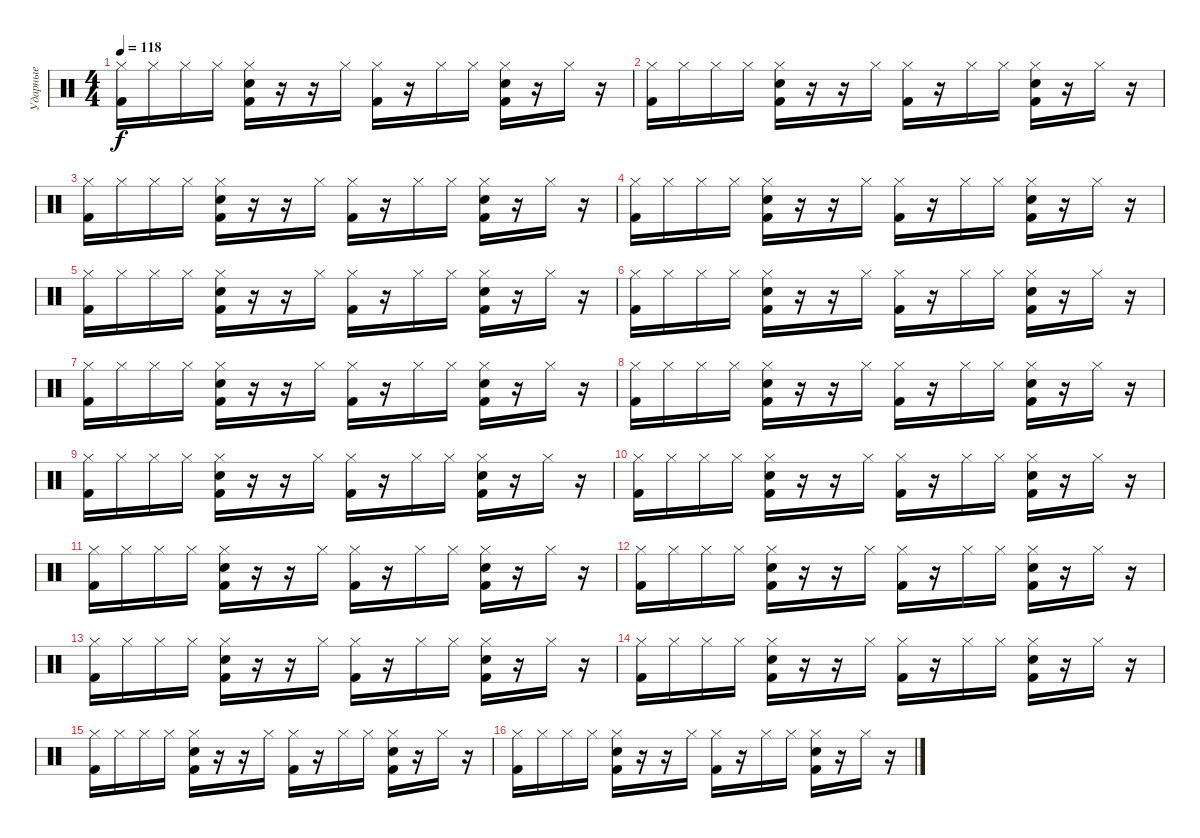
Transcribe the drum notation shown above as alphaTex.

\track ("Ударные" "Ударные") {instrument percussion}
\staff {score}
\articulation defaults
\ts (4 4)
\tempo 118
\clef neutral
\ks c
("Hi-Hat (closed)" "Kick (hit) 2").16{dy f} "Hi-Hat (closed)".16 "Hi-Hat (closed)".16 "Hi-Hat (closed)".16 ("Hi-Hat (closed)" "Kick (hit) 2" "Snare (hit) 2").16 r.16 r.16 "Hi-Hat (closed)".16 ("Hi-Hat (closed)" "Kick (hit) 2").16 r.16 "Hi-Hat (closed)".16 "Hi-Hat (closed)".16 ("Hi-Hat (closed)" "Kick (hit) 2" "Snare (hit) 2").16 r.16 "Hi-Hat (closed)".16 r.16 |
("Hi-Hat (closed)" "Kick (hit) 2").16 "Hi-Hat (closed)".16 "Hi-Hat (closed)".16 "Hi-Hat (closed)".16 ("Hi-Hat (closed)" "Kick (hit) 2" "Snare (hit) 2").16 r.16 r.16 "Hi-Hat (closed)".16 ("Hi-Hat (closed)" "Kick (hit) 2").16 r.16 "Hi-Hat (closed)".16 "Hi-Hat (closed)".16 ("Hi-Hat (closed)" "Kick (hit) 2" "Snare (hit) 2").16 r.16 "Hi-Hat (closed)".16 r.16 |
("Hi-Hat (closed)" "Kick (hit) 2").16 "Hi-Hat (closed)".16 "Hi-Hat (closed)".16 "Hi-Hat (closed)".16 ("Hi-Hat (closed)" "Kick (hit) 2" "Snare (hit) 2").16 r.16 r.16 "Hi-Hat (closed)".16 ("Hi-Hat (closed)" "Kick (hit) 2").16 r.16 "Hi-Hat (closed)".16 "Hi-Hat (closed)".16 ("Hi-Hat (closed)" "Kick (hit) 2" "Snare (hit) 2").16 r.16 "Hi-Hat (closed)".16 r.16 |
("Hi-Hat (closed)" "Kick (hit) 2").16 "Hi-Hat (closed)".16 "Hi-Hat (closed)".16 "Hi-Hat (closed)".16 ("Hi-Hat (closed)" "Kick (hit) 2" "Snare (hit) 2").16 r.16 r.16 "Hi-Hat (closed)".16 ("Hi-Hat (closed)" "Kick (hit) 2").16 r.16 "Hi-Hat (closed)".16 "Hi-Hat (closed)".16 ("Hi-Hat (closed)" "Kick (hit) 2" "Snare (hit) 2").16 r.16 "Hi-Hat (closed)".16 r.16 |
("Hi-Hat (closed)" "Kick (hit) 2").16 "Hi-Hat (closed)".16 "Hi-Hat (closed)".16 "Hi-Hat (closed)".16 ("Hi-Hat (closed)" "Kick (hit) 2" "Snare (hit) 2").16 r.16 r.16 "Hi-Hat (closed)".16 ("Hi-Hat (closed)" "Kick (hit) 2").16 r.16 "Hi-Hat (closed)".16 "Hi-Hat (closed)".16 ("Hi-Hat (closed)" "Kick (hit) 2" "Snare (hit) 2").16 r.16 "Hi-Hat (closed)".16 r.16 |
("Hi-Hat (closed)" "Kick (hit) 2").16 "Hi-Hat (closed)".16 "Hi-Hat (closed)".16 "Hi-Hat (closed)".16 ("Hi-Hat (closed)" "Kick (hit) 2" "Snare (hit) 2").16 r.16 r.16 "Hi-Hat (closed)".16 ("Hi-Hat (closed)" "Kick (hit) 2").16 r.16 "Hi-Hat (closed)".16 "Hi-Hat (closed)".16 ("Hi-Hat (closed)" "Kick (hit) 2" "Snare (hit) 2").16 r.16 "Hi-Hat (closed)".16 r.16 |
("Hi-Hat (closed)" "Kick (hit) 2").16 "Hi-Hat (closed)".16 "Hi-Hat (closed)".16 "Hi-Hat (closed)".16 ("Hi-Hat (closed)" "Kick (hit) 2" "Snare (hit) 2").16 r.16 r.16 "Hi-Hat (closed)".16 ("Hi-Hat (closed)" "Kick (hit) 2").16 r.16 "Hi-Hat (closed)".16 "Hi-Hat (closed)".16 ("Hi-Hat (closed)" "Kick (hit) 2" "Snare (hit) 2").16 r.16 "Hi-Hat (closed)".16 r.16 |
("Hi-Hat (closed)" "Kick (hit) 2").16 "Hi-Hat (closed)".16 "Hi-Hat (closed)".16 "Hi-Hat (closed)".16 ("Hi-Hat (closed)" "Kick (hit) 2" "Snare (hit) 2").16 r.16 r.16 "Hi-Hat (closed)".16 ("Hi-Hat (closed)" "Kick (hit) 2").16 r.16 "Hi-Hat (closed)".16 "Hi-Hat (closed)".16 ("Hi-Hat (closed)" "Kick (hit) 2" "Snare (hit) 2").16 r.16 "Hi-Hat (closed)".16 r.16 |
("Hi-Hat (closed)" "Kick (hit) 2").16 "Hi-Hat (closed)".16 "Hi-Hat (closed)".16 "Hi-Hat (closed)".16 ("Hi-Hat (closed)" "Kick (hit) 2" "Snare (hit) 2").16 r.16 r.16 "Hi-Hat (closed)".16 ("Hi-Hat (closed)" "Kick (hit) 2").16 r.16 "Hi-Hat (closed)".16 "Hi-Hat (closed)".16 ("Hi-Hat (closed)" "Kick (hit) 2" "Snare (hit) 2").16 r.16 "Hi-Hat (closed)".16 r.16 |
("Hi-Hat (closed)" "Kick (hit) 2").16 "Hi-Hat (closed)".16 "Hi-Hat (closed)".16 "Hi-Hat (closed)".16 ("Hi-Hat (closed)" "Kick (hit) 2" "Snare (hit) 2").16 r.16 r.16 "Hi-Hat (closed)".16 ("Hi-Hat (closed)" "Kick (hit) 2").16 r.16 "Hi-Hat (closed)".16 "Hi-Hat (closed)".16 ("Hi-Hat (closed)" "Kick (hit) 2" "Snare (hit) 2").16 r.16 "Hi-Hat (closed)".16 r.16 |
("Hi-Hat (closed)" "Kick (hit) 2").16 "Hi-Hat (closed)".16 "Hi-Hat (closed)".16 "Hi-Hat (closed)".16 ("Hi-Hat (closed)" "Kick (hit) 2" "Snare (hit) 2").16 r.16 r.16 "Hi-Hat (closed)".16 ("Hi-Hat (closed)" "Kick (hit) 2").16 r.16 "Hi-Hat (closed)".16 "Hi-Hat (closed)".16 ("Hi-Hat (closed)" "Kick (hit) 2" "Snare (hit) 2").16 r.16 "Hi-Hat (closed)".16 r.16 |
("Hi-Hat (closed)" "Kick (hit) 2").16 "Hi-Hat (closed)".16 "Hi-Hat (closed)".16 "Hi-Hat (closed)".16 ("Hi-Hat (closed)" "Kick (hit) 2" "Snare (hit) 2").16 r.16 r.16 "Hi-Hat (closed)".16 ("Hi-Hat (closed)" "Kick (hit) 2").16 r.16 "Hi-Hat (closed)".16 "Hi-Hat (closed)".16 ("Hi-Hat (closed)" "Kick (hit) 2" "Snare (hit) 2").16 r.16 "Hi-Hat (closed)".16 r.16 |
("Hi-Hat (closed)" "Kick (hit) 2").16 "Hi-Hat (closed)".16 "Hi-Hat (closed)".16 "Hi-Hat (closed)".16 ("Hi-Hat (closed)" "Kick (hit) 2" "Snare (hit) 2").16 r.16 r.16 "Hi-Hat (closed)".16 ("Hi-Hat (closed)" "Kick (hit) 2").16 r.16 "Hi-Hat (closed)".16 "Hi-Hat (closed)".16 ("Hi-Hat (closed)" "Kick (hit) 2" "Snare (hit) 2").16 r.16 "Hi-Hat (closed)".16 r.16 |
("Hi-Hat (closed)" "Kick (hit) 2").16 "Hi-Hat (closed)".16 "Hi-Hat (closed)".16 "Hi-Hat (closed)".16 ("Hi-Hat (closed)" "Kick (hit) 2" "Snare (hit) 2").16 r.16 r.16 "Hi-Hat (closed)".16 ("Hi-Hat (closed)" "Kick (hit) 2").16 r.16 "Hi-Hat (closed)".16 "Hi-Hat (closed)".16 ("Hi-Hat (closed)" "Kick (hit) 2" "Snare (hit) 2").16 r.16 "Hi-Hat (closed)".16 r.16 |
("Hi-Hat (closed)" "Kick (hit) 2").16 "Hi-Hat (closed)".16 "Hi-Hat (closed)".16 "Hi-Hat (closed)".16 ("Hi-Hat (closed)" "Kick (hit) 2" "Snare (hit) 2").16 r.16 r.16 "Hi-Hat (closed)".16 ("Hi-Hat (closed)" "Kick (hit) 2").16 r.16 "Hi-Hat (closed)".16 "Hi-Hat (closed)".16 ("Hi-Hat (closed)" "Kick (hit) 2" "Snare (hit) 2").16 r.16 "Hi-Hat (closed)".16 r.16 |
("Hi-Hat (closed)" "Kick (hit) 2").16 "Hi-Hat (closed)".16 "Hi-Hat (closed)".16 "Hi-Hat (closed)".16 ("Hi-Hat (closed)" "Kick (hit) 2" "Snare (hit) 2").16 r.16 r.16 "Hi-Hat (closed)".16 ("Hi-Hat (closed)" "Kick (hit) 2").16 r.16 "Hi-Hat (closed)".16 "Hi-Hat (closed)".16 ("Hi-Hat (closed)" "Kick (hit) 2" "Snare (hit) 2").16 r.16 "Hi-Hat (closed)".16 r.16
